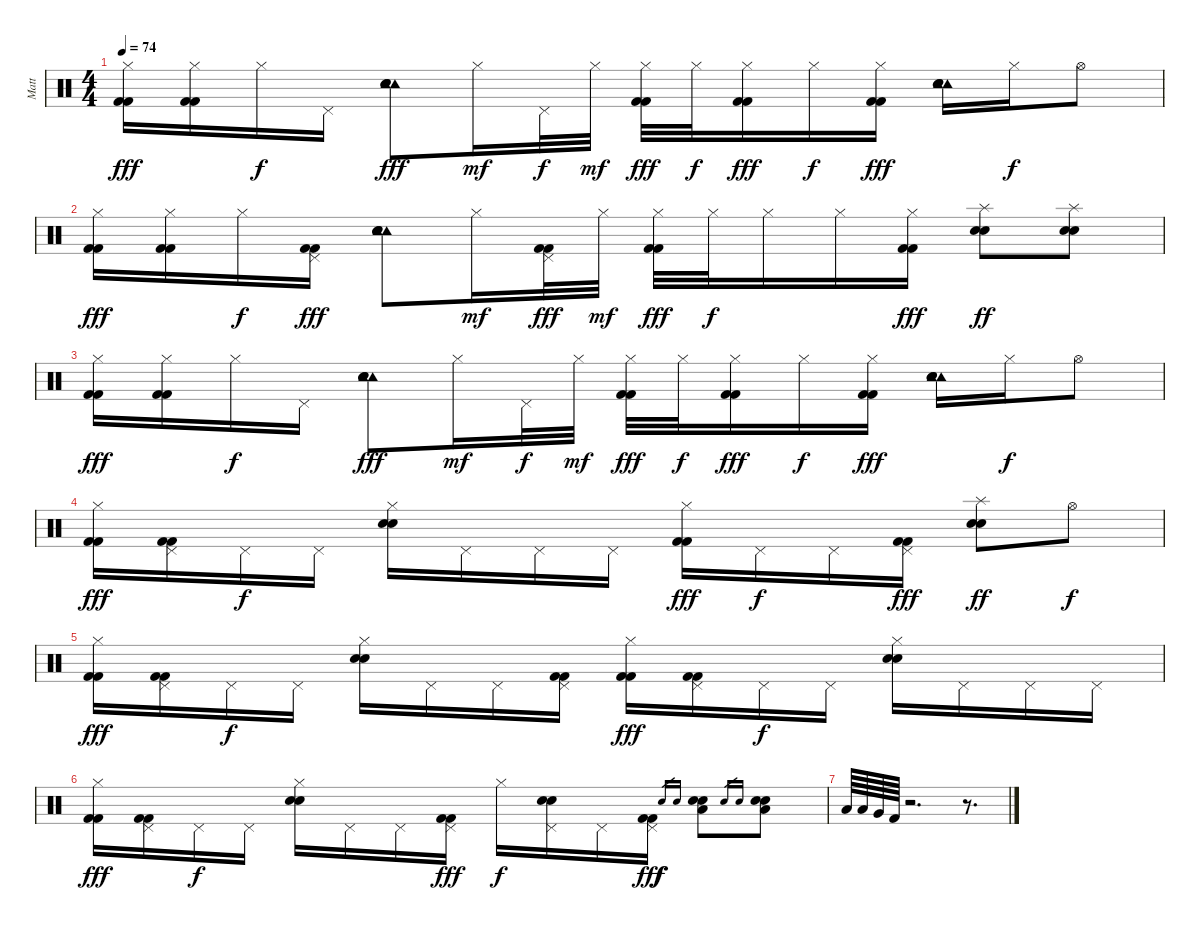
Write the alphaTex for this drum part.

\track ("Matt" "Matt") {instrument percussion}
\staff {score}
\articulation defaults
\ts (4 4)
\tempo 74
\clef neutral
\ks c
("Hi-Hat (closed)" "Kick (hit) 2" "Kick (hit) 2").16{dy fff} ("Hi-Hat (closed)" "Kick (hit) 2" "Kick (hit) 2").16 "Hi-Hat (closed)".16{dy f} "Pedal Hi-Hat (hit)".16 ("Tambourine (hit)" "Tambourine (hit)" "Electric Snare (hit)" "Electric Snare (hit)").8{dy fff} "Hi-Hat (closed)".16{dy mf} "Pedal Hi-Hat (hit)".32{dy f} "Hi-Hat (closed)".32{dy mf} ("Hi-Hat (closed)" "Kick (hit) 2" "Kick (hit) 2").32{dy fff} "Hi-Hat (closed)".32{dy f} ("Hi-Hat (closed)" "Kick (hit) 2" "Kick (hit) 2").16{dy fff} "Hi-Hat (closed)".16{dy f} ("Hi-Hat (closed)" "Kick (hit) 2" "Kick (hit) 2").16{dy fff} ("Tambourine (hit)" "Tambourine (hit)" "Electric Snare (hit)" "Electric Snare (hit)").16 "Hi-Hat (closed)".16{dy f} "Hi-Hat (open)".8 |
("Hi-Hat (closed)" "Kick (hit) 2" "Kick (hit) 2").16{dy fff} ("Hi-Hat (closed)" "Kick (hit) 2" "Kick (hit) 2").16 "Hi-Hat (closed)".16{dy f} ("Pedal Hi-Hat (hit)" "Kick (hit) 2" "Kick (hit) 2").16{dy fff} ("Tambourine (hit)" "Tambourine (hit)" "Electric Snare (hit)" "Electric Snare (hit)").8 "Hi-Hat (closed)".16{dy mf} ("Pedal Hi-Hat (hit)" "Kick (hit) 2" "Kick (hit) 2").32{dy fff} "Hi-Hat (closed)".32{dy mf} ("Hi-Hat (closed)" "Kick (hit) 2" "Kick (hit) 2").32{dy fff} "Hi-Hat (closed)".32{dy f} "Hi-Hat (closed)".16 "Hi-Hat (closed)".16 ("Hi-Hat (closed)" "Kick (hit) 2" "Kick (hit) 2").16{dy fff} ("Splash (hit)" "Electric Snare (hit)" "Electric Snare (hit)").8{dy ff} ("Splash (hit)" "Electric Snare (hit)" "Electric Snare (hit)").8 |
("Hi-Hat (closed)" "Kick (hit) 2" "Kick (hit) 2").16{dy fff} ("Hi-Hat (closed)" "Kick (hit) 2" "Kick (hit) 2").16 "Hi-Hat (closed)".16{dy f} "Pedal Hi-Hat (hit)".16 ("Tambourine (hit)" "Tambourine (hit)" "Electric Snare (hit)" "Electric Snare (hit)").8{dy fff} "Hi-Hat (closed)".16{dy mf} "Pedal Hi-Hat (hit)".32{dy f} "Hi-Hat (closed)".32{dy mf} ("Hi-Hat (closed)" "Kick (hit) 2" "Kick (hit) 2").32{dy fff} "Hi-Hat (closed)".32{dy f} ("Hi-Hat (closed)" "Kick (hit) 2" "Kick (hit) 2").16{dy fff} "Hi-Hat (closed)".16{dy f} ("Hi-Hat (closed)" "Kick (hit) 2" "Kick (hit) 2").16{dy fff} ("Tambourine (hit)" "Tambourine (hit)" "Electric Snare (hit)" "Electric Snare (hit)").16 "Hi-Hat (closed)".16{dy f} "Hi-Hat (open)".8 |
("Hi-Hat (closed)" "Kick (hit) 2" "Kick (hit) 2").16{dy fff} ("Pedal Hi-Hat (hit)" "Kick (hit) 2" "Kick (hit) 2").16 "Pedal Hi-Hat (hit)".16{dy f} "Pedal Hi-Hat (hit)".16 ("Hi-Hat (closed)" "Electric Snare (hit)" "Electric Snare (hit)").16 "Pedal Hi-Hat (hit)".16 "Pedal Hi-Hat (hit)".16 "Pedal Hi-Hat (hit)".16 ("Hi-Hat (closed)" "Kick (hit) 2" "Kick (hit) 2").16{dy fff} "Pedal Hi-Hat (hit)".16{dy f} "Pedal Hi-Hat (hit)".16 ("Pedal Hi-Hat (hit)" "Kick (hit) 2" "Kick (hit) 2").16{dy fff} ("Splash (hit)" "Electric Snare (hit)" "Electric Snare (hit)").8{dy ff} "Hi-Hat (open)".8{dy f} |
("Hi-Hat (closed)" "Kick (hit) 2" "Kick (hit) 2").16{dy fff} ("Pedal Hi-Hat (hit)" "Kick (hit) 2" "Kick (hit) 2").16 "Pedal Hi-Hat (hit)".16{dy f} "Pedal Hi-Hat (hit)".16 ("Hi-Hat (closed)" "Electric Snare (hit)" "Electric Snare (hit)").16 "Pedal Hi-Hat (hit)".16 "Pedal Hi-Hat (hit)".16 ("Pedal Hi-Hat (hit)" "Kick (hit) 2" "Kick (hit) 2").16 ("Hi-Hat (closed)" "Kick (hit) 2" "Kick (hit) 2").16{dy fff} ("Pedal Hi-Hat (hit)" "Kick (hit) 2" "Kick (hit) 2").16 "Pedal Hi-Hat (hit)".16{dy f} "Pedal Hi-Hat (hit)".16 ("Hi-Hat (closed)" "Electric Snare (hit)" "Electric Snare (hit)").16 "Pedal Hi-Hat (hit)".16 "Pedal Hi-Hat (hit)".16 "Pedal Hi-Hat (hit)".16 |
("Hi-Hat (closed)" "Kick (hit) 2" "Kick (hit) 2").16{dy fff} ("Pedal Hi-Hat (hit)" "Kick (hit) 2" "Kick (hit) 2").16 "Pedal Hi-Hat (hit)".16{dy f} "Pedal Hi-Hat (hit)".16 ("Hi-Hat (closed)" "Electric Snare (hit)" "Electric Snare (hit)").16 "Pedal Hi-Hat (hit)".16 "Pedal Hi-Hat (hit)".16 ("Pedal Hi-Hat (hit)" "Kick (hit) 2" "Kick (hit) 2").16{dy fff} "Hi-Hat (closed)".16{dy f} ("Pedal Hi-Hat (hit)" "Electric Snare (hit)" "Electric Snare (hit)").16 "Pedal Hi-Hat (hit)".16 ("Pedal Hi-Hat (hit)" "Kick (hit) 2" "Kick (hit) 2").16{dy fff} "Electric Snare (hit)".16{gr dy f} "Electric Snare (hit)".16{gr} ("Electric Snare (hit)" "Electric Snare (hit)" "Low Tom (hit)").8 "Electric Snare (hit)".16{gr} "Electric Snare (hit)".16{gr} ("Electric Snare (hit)" "Electric Snare (hit)" "Low Tom (hit)").8 |
"Low Tom (hit)".64 "Low Tom (hit)".64 "Very Low Tom (hit)".64 "Kick (hit) 2".64 r.2{d} r.8{d}
